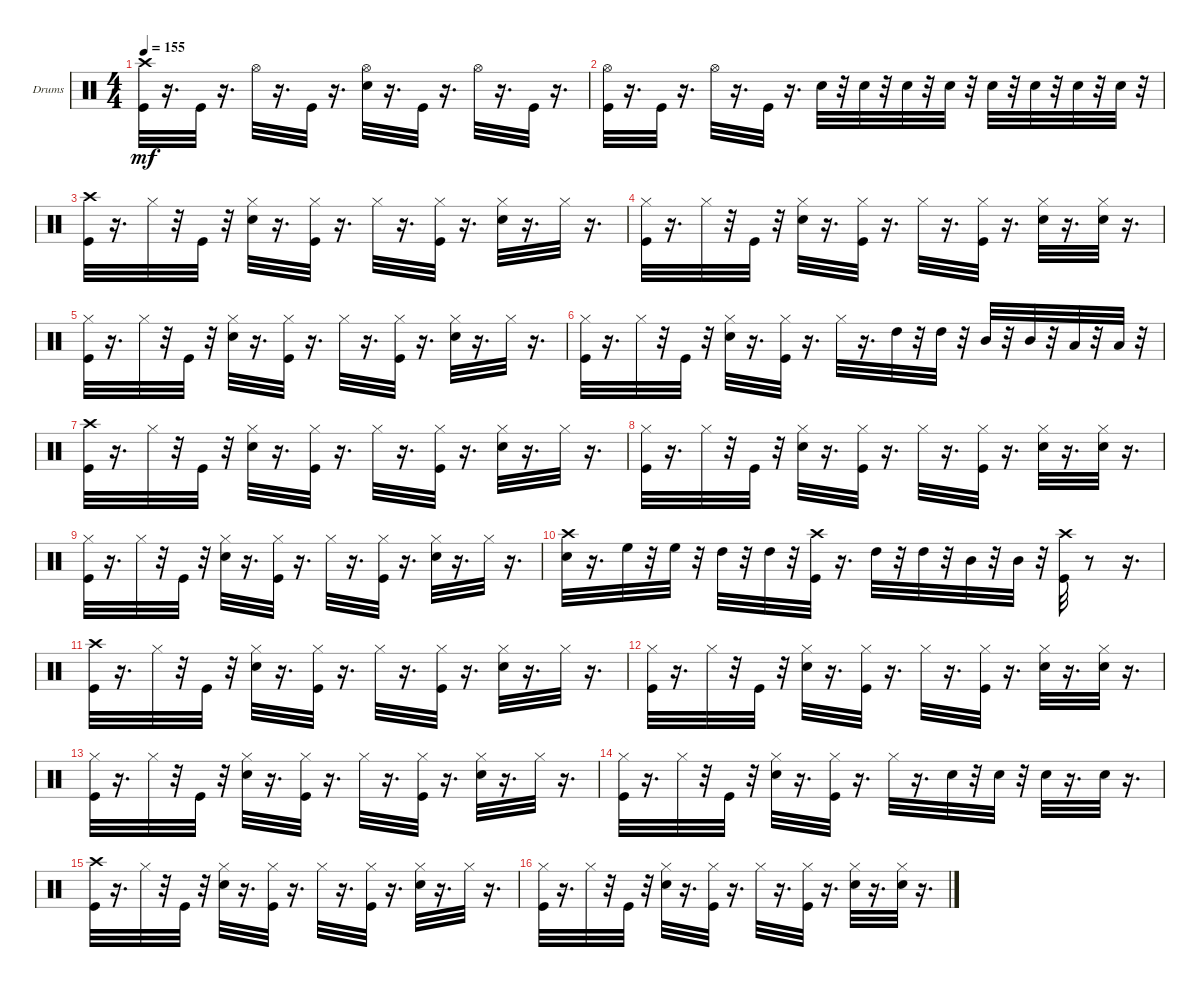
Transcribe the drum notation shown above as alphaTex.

\bracketExtendMode groupsimilarinstruments
\firstSystemTrackNameOrientation horizontal
\otherSystemsTrackNameOrientation horizontal
\track ("" "Drums") {instrument percussion}
\staff {score}
\articulation defaults
\ts (4 4)
\tempo 155
\clef neutral
\ks c
("Crash high (hit)" "Kick (hit)").32{dy mf} r.16{d} "Kick (hit)".32 r.16{d} "Hi-Hat (open)".32 r.16{d} "Kick (hit)".32 r.16{d} ("Snare (hit) 2" "Hi-Hat (open)").32 r.16{d} "Kick (hit)".32 r.16{d} "Hi-Hat (open)".32 r.16{d} "Kick (hit)".32 r.16{d} |
("Hi-Hat (open)" "Kick (hit)").32 r.16{d} "Kick (hit)".32 r.16{d} "Hi-Hat (open)".32 r.16{d} "Kick (hit)".32 r.16{d} "Snare (hit) 2".32 r.32 "Snare (hit) 2".32 r.32 "Snare (hit) 2".32 r.32 "Snare (hit) 2".32 r.32 "Snare (hit) 2".32 r.32 "Snare (hit) 2".32 r.32 "Snare (hit) 2".32 r.32 "Snare (hit) 2".32 r.32 |
("Crash high (hit)" "Kick (hit)").32 r.16{d} "Hi-Hat (closed)".32 r.32 "Kick (hit)".32 r.32 ("Hi-Hat (closed)" "Snare (hit) 2").32 r.16{d} ("Kick (hit)" "Hi-Hat (closed)").32 r.16{d} "Hi-Hat (closed)".32 r.16{d} ("Kick (hit)" "Hi-Hat (closed)").32 r.16{d} ("Hi-Hat (closed)" "Snare (hit) 2").32 r.16{d} "Hi-Hat (closed)".32 r.16{d} |
("Hi-Hat (closed)" "Kick (hit)").32 r.16{d} "Hi-Hat (closed)".32 r.32 "Kick (hit)".32 r.32 ("Hi-Hat (closed)" "Snare (hit) 2").32 r.16{d} ("Kick (hit)" "Hi-Hat (closed)").32 r.16{d} "Hi-Hat (closed)".32 r.16{d} ("Kick (hit)" "Hi-Hat (closed)").32 r.16{d} ("Hi-Hat (closed)" "Snare (hit) 2").32 r.16{d} ("Snare (hit) 2" "Hi-Hat (closed)").32 r.16{d} |
("Hi-Hat (closed)" "Kick (hit)").32 r.16{d} "Hi-Hat (closed)".32 r.32 "Kick (hit)".32 r.32 ("Hi-Hat (closed)" "Snare (hit) 2").32 r.16{d} ("Kick (hit)" "Hi-Hat (closed)").32 r.16{d} "Hi-Hat (closed)".32 r.16{d} ("Kick (hit)" "Hi-Hat (closed)").32 r.16{d} ("Hi-Hat (closed)" "Snare (hit) 2").32 r.16{d} "Hi-Hat (closed)".32 r.16{d} |
("Hi-Hat (closed)" "Kick (hit)").32 r.16{d} "Hi-Hat (closed)".32 r.32 "Kick (hit)".32 r.32 ("Hi-Hat (closed)" "Snare (hit) 2").32 r.16{d} ("Kick (hit)" "Hi-Hat (closed)").32 r.16{d} "Hi-Hat (closed)".32 r.16{d} "High Tom (hit)".32 r.32 "High Tom (hit)".32 r.32 "Mid Tom (hit)".32 r.32 "Mid Tom (hit)".32 r.32 "Low Tom (hit)".32 r.32 "Low Tom (hit)".32 r.32 |
("Crash high (hit)" "Kick (hit)").32 r.16{d} "Hi-Hat (closed)".32 r.32 "Kick (hit)".32 r.32 ("Hi-Hat (closed)" "Snare (hit) 2").32 r.16{d} ("Kick (hit)" "Hi-Hat (closed)").32 r.16{d} "Hi-Hat (closed)".32 r.16{d} ("Kick (hit)" "Hi-Hat (closed)").32 r.16{d} ("Hi-Hat (closed)" "Snare (hit) 2").32 r.16{d} "Hi-Hat (closed)".32 r.16{d} |
("Hi-Hat (closed)" "Kick (hit)").32 r.16{d} "Hi-Hat (closed)".32 r.32 "Kick (hit)".32 r.32 ("Hi-Hat (closed)" "Snare (hit) 2").32 r.16{d} ("Kick (hit)" "Hi-Hat (closed)").32 r.16{d} "Hi-Hat (closed)".32 r.16{d} ("Kick (hit)" "Hi-Hat (closed)").32 r.16{d} ("Hi-Hat (closed)" "Snare (hit) 2").32 r.16{d} ("Snare (hit) 2" "Hi-Hat (closed)").32 r.16{d} |
("Hi-Hat (closed)" "Kick (hit)").32 r.16{d} "Hi-Hat (closed)".32 r.32 "Kick (hit)".32 r.32 ("Hi-Hat (closed)" "Snare (hit) 2").32 r.16{d} ("Kick (hit)" "Hi-Hat (closed)").32 r.16{d} "Hi-Hat (closed)".32 r.16{d} ("Kick (hit)" "Hi-Hat (closed)").32 r.16{d} ("Hi-Hat (closed)" "Snare (hit) 2").32 r.16{d} "Hi-Hat (closed)".32 r.16{d} |
("Crash high (hit)" "Snare (hit) 2").32 r.16{d} "High Floor Tom (hit)".32 r.32 "High Floor Tom (hit)".32 r.32 "High Tom (hit)".32 r.32 "High Tom (hit)".32 r.32 ("Crash high (hit)" "Kick (hit)").32 r.16{d} "High Tom (hit)".32 r.32 "High Tom (hit)".32 r.32 "Mid Tom (hit)".32 r.32 "Mid Tom (hit)".32 r.32 ("Crash high (hit)" "Kick (hit)").32 r.8 r.16{d} |
("Crash high (hit)" "Kick (hit)").32 r.16{d} "Hi-Hat (closed)".32 r.32 "Kick (hit)".32 r.32 ("Hi-Hat (closed)" "Snare (hit) 2").32 r.16{d} ("Kick (hit)" "Hi-Hat (closed)").32 r.16{d} "Hi-Hat (closed)".32 r.16{d} ("Kick (hit)" "Hi-Hat (closed)").32 r.16{d} ("Hi-Hat (closed)" "Snare (hit) 2").32 r.16{d} "Hi-Hat (closed)".32 r.16{d} |
("Hi-Hat (closed)" "Kick (hit)").32 r.16{d} "Hi-Hat (closed)".32 r.32 "Kick (hit)".32 r.32 ("Hi-Hat (closed)" "Snare (hit) 2").32 r.16{d} ("Kick (hit)" "Hi-Hat (closed)").32 r.16{d} "Hi-Hat (closed)".32 r.16{d} ("Kick (hit)" "Hi-Hat (closed)").32 r.16{d} ("Hi-Hat (closed)" "Snare (hit) 2").32 r.16{d} ("Snare (hit) 2" "Hi-Hat (closed)").32 r.16{d} |
("Hi-Hat (closed)" "Kick (hit)").32 r.16{d} "Hi-Hat (closed)".32 r.32 "Kick (hit)".32 r.32 ("Hi-Hat (closed)" "Snare (hit) 2").32 r.16{d} ("Kick (hit)" "Hi-Hat (closed)").32 r.16{d} "Hi-Hat (closed)".32 r.16{d} ("Kick (hit)" "Hi-Hat (closed)").32 r.16{d} ("Hi-Hat (closed)" "Snare (hit) 2").32 r.16{d} "Hi-Hat (closed)".32 r.16{d} |
("Hi-Hat (closed)" "Kick (hit)").32 r.16{d} "Hi-Hat (closed)".32 r.32 "Kick (hit)".32 r.32 ("Hi-Hat (closed)" "Snare (hit) 2").32 r.16{d} ("Kick (hit)" "Hi-Hat (closed)").32 r.16{d} "Hi-Hat (closed)".32 r.16{d} "Snare (hit) 2".32 r.32 "Snare (hit) 2".32 r.32 "Snare (hit) 2".32 r.16{d} "Snare (hit) 2".32 r.16{d} |
("Crash high (hit)" "Kick (hit)").32 r.16{d} "Hi-Hat (closed)".32 r.32 "Kick (hit)".32 r.32 ("Hi-Hat (closed)" "Snare (hit) 2").32 r.16{d} ("Kick (hit)" "Hi-Hat (closed)").32 r.16{d} "Hi-Hat (closed)".32 r.16{d} ("Kick (hit)" "Hi-Hat (closed)").32 r.16{d} ("Hi-Hat (closed)" "Snare (hit) 2").32 r.16{d} "Hi-Hat (closed)".32 r.16{d} |
("Hi-Hat (closed)" "Kick (hit)").32 r.16{d} "Hi-Hat (closed)".32 r.32 "Kick (hit)".32 r.32 ("Hi-Hat (closed)" "Snare (hit) 2").32 r.16{d} ("Kick (hit)" "Hi-Hat (closed)").32 r.16{d} "Hi-Hat (closed)".32 r.16{d} ("Kick (hit)" "Hi-Hat (closed)").32 r.16{d} ("Hi-Hat (closed)" "Snare (hit) 2").32 r.16{d} ("Snare (hit) 2" "Hi-Hat (closed)").32 r.16{d}
